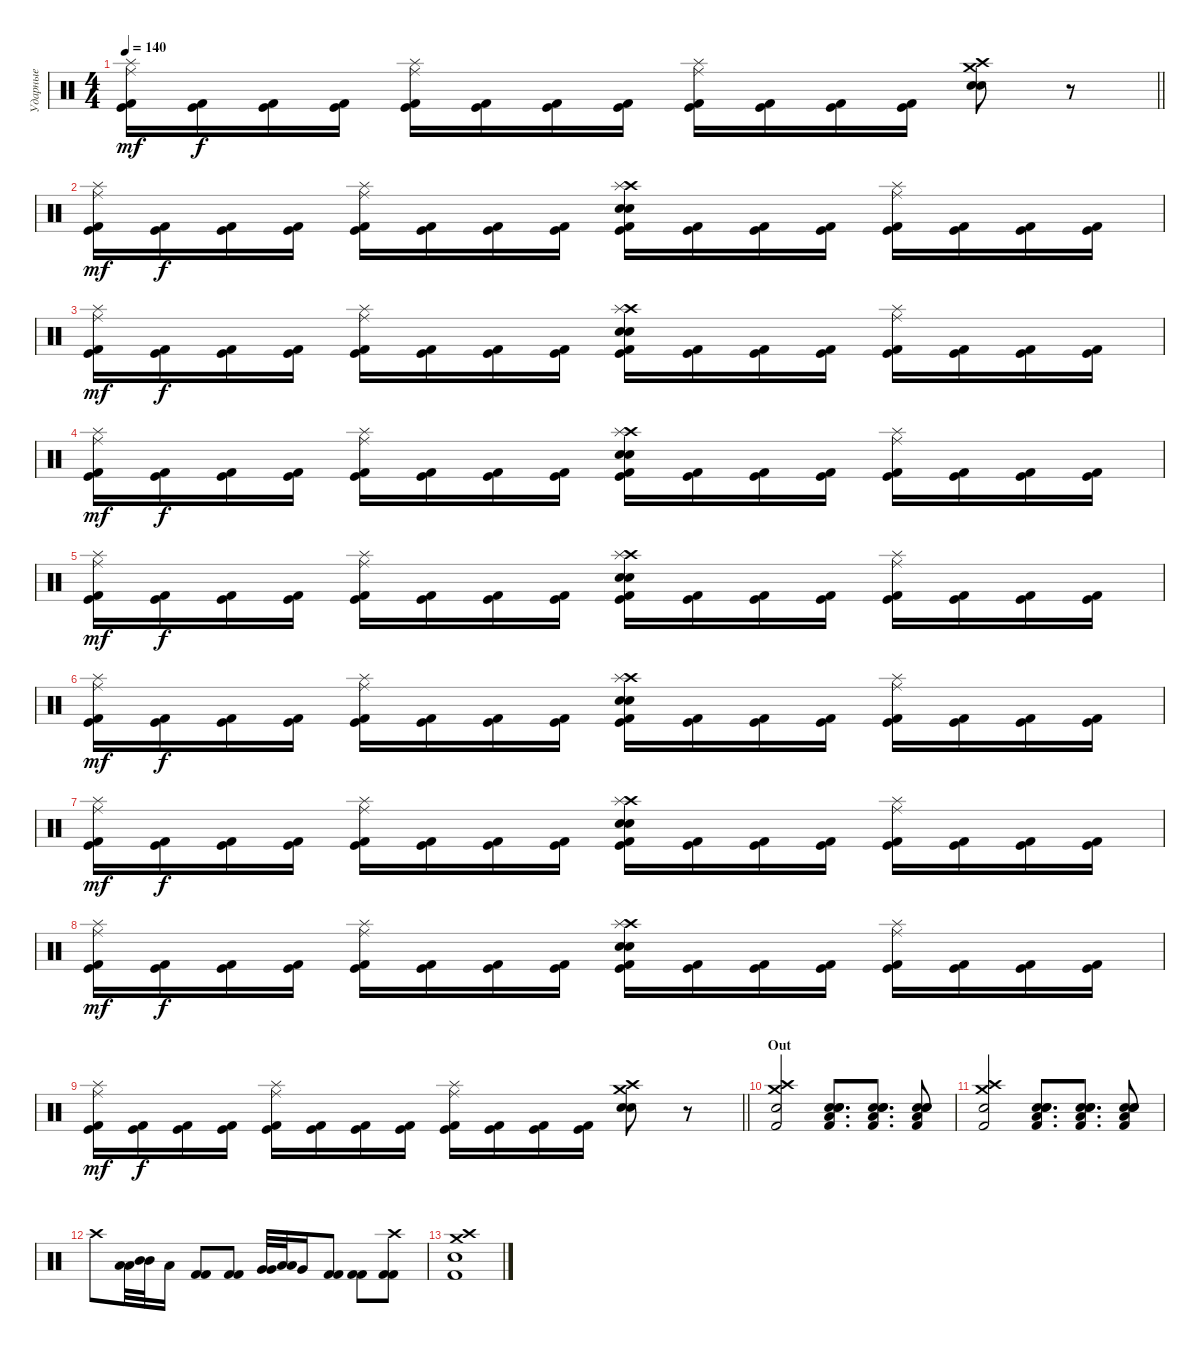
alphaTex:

\track ("Ударные" "Ударные") {instrument percussion}
\staff {score}
\articulation defaults
\ts (4 4)
\tempo 140
\clef neutral
\barLineRight lightlight
\ks c
("Ride (middle)" "Splash (hit)" "Kick (hit) 2" "Kick (hit)").16{dy mf} ("Kick (hit) 2" "Kick (hit)").16{dy f} ("Kick (hit) 2" "Kick (hit)").16 ("Kick (hit) 2" "Kick (hit)").16 ("Ride (middle)" "Splash (hit)" "Kick (hit) 2" "Kick (hit)").16 ("Kick (hit) 2" "Kick (hit)").16 ("Kick (hit) 2" "Kick (hit)").16 ("Kick (hit) 2" "Kick (hit)").16 ("Ride (middle)" "Splash (hit)" "Kick (hit) 2" "Kick (hit)").16 ("Kick (hit) 2" "Kick (hit)").16 ("Kick (hit) 2" "Kick (hit)").16 ("Kick (hit) 2" "Kick (hit)").16 ("Snare (hit) 2" "Crash high (hit)" "Crash medium (hit)" "Electric Snare (hit)").8 r.8 |
("Ride (middle)" "Splash (hit)" "Kick (hit) 2" "Kick (hit)").16{dy mf} ("Kick (hit) 2" "Kick (hit)").16{dy f} ("Kick (hit) 2" "Kick (hit)").16 ("Kick (hit) 2" "Kick (hit)").16 ("Ride (middle)" "Splash (hit)" "Kick (hit) 2" "Kick (hit)").16 ("Kick (hit) 2" "Kick (hit)").16 ("Kick (hit) 2" "Kick (hit)").16 ("Kick (hit) 2" "Kick (hit)").16 ("Electric Snare (hit)" "Crash high (hit)" "Splash (hit)" "Snare (hit) 2" "Kick (hit) 2" "Kick (hit)").16 ("Kick (hit) 2" "Kick (hit)").16 ("Kick (hit) 2" "Kick (hit)").16 ("Kick (hit) 2" "Kick (hit)").16 ("Ride (middle)" "Splash (hit)" "Kick (hit) 2" "Kick (hit)").16 ("Kick (hit) 2" "Kick (hit)").16 ("Kick (hit) 2" "Kick (hit)").16 ("Kick (hit) 2" "Kick (hit)").16 |
("Ride (middle)" "Splash (hit)" "Kick (hit) 2" "Kick (hit)").16{dy mf} ("Kick (hit) 2" "Kick (hit)").16{dy f} ("Kick (hit) 2" "Kick (hit)").16 ("Kick (hit) 2" "Kick (hit)").16 ("Ride (middle)" "Splash (hit)" "Kick (hit) 2" "Kick (hit)").16 ("Kick (hit) 2" "Kick (hit)").16 ("Kick (hit) 2" "Kick (hit)").16 ("Kick (hit) 2" "Kick (hit)").16 ("Electric Snare (hit)" "Crash high (hit)" "Splash (hit)" "Snare (hit) 2" "Kick (hit) 2" "Kick (hit)").16 ("Kick (hit) 2" "Kick (hit)").16 ("Kick (hit) 2" "Kick (hit)").16 ("Kick (hit) 2" "Kick (hit)").16 ("Ride (middle)" "Splash (hit)" "Kick (hit) 2" "Kick (hit)").16 ("Kick (hit) 2" "Kick (hit)").16 ("Kick (hit) 2" "Kick (hit)").16 ("Kick (hit) 2" "Kick (hit)").16 |
("Ride (middle)" "Splash (hit)" "Kick (hit) 2" "Kick (hit)").16{dy mf} ("Kick (hit) 2" "Kick (hit)").16{dy f} ("Kick (hit) 2" "Kick (hit)").16 ("Kick (hit) 2" "Kick (hit)").16 ("Ride (middle)" "Splash (hit)" "Kick (hit) 2" "Kick (hit)").16 ("Kick (hit) 2" "Kick (hit)").16 ("Kick (hit) 2" "Kick (hit)").16 ("Kick (hit) 2" "Kick (hit)").16 ("Electric Snare (hit)" "Crash high (hit)" "Splash (hit)" "Snare (hit) 2" "Kick (hit) 2" "Kick (hit)").16 ("Kick (hit) 2" "Kick (hit)").16 ("Kick (hit) 2" "Kick (hit)").16 ("Kick (hit) 2" "Kick (hit)").16 ("Ride (middle)" "Splash (hit)" "Kick (hit) 2" "Kick (hit)").16 ("Kick (hit) 2" "Kick (hit)").16 ("Kick (hit) 2" "Kick (hit)").16 ("Kick (hit) 2" "Kick (hit)").16 |
("Ride (middle)" "Splash (hit)" "Kick (hit) 2" "Kick (hit)").16{dy mf} ("Kick (hit) 2" "Kick (hit)").16{dy f} ("Kick (hit) 2" "Kick (hit)").16 ("Kick (hit) 2" "Kick (hit)").16 ("Ride (middle)" "Splash (hit)" "Kick (hit) 2" "Kick (hit)").16 ("Kick (hit) 2" "Kick (hit)").16 ("Kick (hit) 2" "Kick (hit)").16 ("Kick (hit) 2" "Kick (hit)").16 ("Electric Snare (hit)" "Crash high (hit)" "Splash (hit)" "Snare (hit) 2" "Kick (hit) 2" "Kick (hit)").16 ("Kick (hit) 2" "Kick (hit)").16 ("Kick (hit) 2" "Kick (hit)").16 ("Kick (hit) 2" "Kick (hit)").16 ("Ride (middle)" "Splash (hit)" "Kick (hit) 2" "Kick (hit)").16 ("Kick (hit) 2" "Kick (hit)").16 ("Kick (hit) 2" "Kick (hit)").16 ("Kick (hit) 2" "Kick (hit)").16 |
("Ride (middle)" "Splash (hit)" "Kick (hit) 2" "Kick (hit)").16{dy mf} ("Kick (hit) 2" "Kick (hit)").16{dy f} ("Kick (hit) 2" "Kick (hit)").16 ("Kick (hit) 2" "Kick (hit)").16 ("Ride (middle)" "Splash (hit)" "Kick (hit) 2" "Kick (hit)").16 ("Kick (hit) 2" "Kick (hit)").16 ("Kick (hit) 2" "Kick (hit)").16 ("Kick (hit) 2" "Kick (hit)").16 ("Electric Snare (hit)" "Crash high (hit)" "Splash (hit)" "Snare (hit) 2" "Kick (hit) 2" "Kick (hit)").16 ("Kick (hit) 2" "Kick (hit)").16 ("Kick (hit) 2" "Kick (hit)").16 ("Kick (hit) 2" "Kick (hit)").16 ("Ride (middle)" "Splash (hit)" "Kick (hit) 2" "Kick (hit)").16 ("Kick (hit) 2" "Kick (hit)").16 ("Kick (hit) 2" "Kick (hit)").16 ("Kick (hit) 2" "Kick (hit)").16 |
("Ride (middle)" "Splash (hit)" "Kick (hit) 2" "Kick (hit)").16{dy mf} ("Kick (hit) 2" "Kick (hit)").16{dy f} ("Kick (hit) 2" "Kick (hit)").16 ("Kick (hit) 2" "Kick (hit)").16 ("Ride (middle)" "Splash (hit)" "Kick (hit) 2" "Kick (hit)").16 ("Kick (hit) 2" "Kick (hit)").16 ("Kick (hit) 2" "Kick (hit)").16 ("Kick (hit) 2" "Kick (hit)").16 ("Electric Snare (hit)" "Crash high (hit)" "Splash (hit)" "Snare (hit) 2" "Kick (hit) 2" "Kick (hit)").16 ("Kick (hit) 2" "Kick (hit)").16 ("Kick (hit) 2" "Kick (hit)").16 ("Kick (hit) 2" "Kick (hit)").16 ("Ride (middle)" "Splash (hit)" "Kick (hit) 2" "Kick (hit)").16 ("Kick (hit) 2" "Kick (hit)").16 ("Kick (hit) 2" "Kick (hit)").16 ("Kick (hit) 2" "Kick (hit)").16 |
("Ride (middle)" "Splash (hit)" "Kick (hit) 2" "Kick (hit)").16{dy mf} ("Kick (hit) 2" "Kick (hit)").16{dy f} ("Kick (hit) 2" "Kick (hit)").16 ("Kick (hit) 2" "Kick (hit)").16 ("Ride (middle)" "Splash (hit)" "Kick (hit) 2" "Kick (hit)").16 ("Kick (hit) 2" "Kick (hit)").16 ("Kick (hit) 2" "Kick (hit)").16 ("Kick (hit) 2" "Kick (hit)").16 ("Electric Snare (hit)" "Crash high (hit)" "Splash (hit)" "Snare (hit) 2" "Kick (hit) 2" "Kick (hit)").16 ("Kick (hit) 2" "Kick (hit)").16 ("Kick (hit) 2" "Kick (hit)").16 ("Kick (hit) 2" "Kick (hit)").16 ("Ride (middle)" "Splash (hit)" "Kick (hit) 2" "Kick (hit)").16 ("Kick (hit) 2" "Kick (hit)").16 ("Kick (hit) 2" "Kick (hit)").16 ("Kick (hit) 2" "Kick (hit)").16 |
\barLineRight lightlight
("Ride (middle)" "Splash (hit)" "Kick (hit) 2" "Kick (hit)").16{dy mf} ("Kick (hit) 2" "Kick (hit)").16{dy f} ("Kick (hit) 2" "Kick (hit)").16 ("Kick (hit) 2" "Kick (hit)").16 ("Ride (middle)" "Splash (hit)" "Kick (hit) 2" "Kick (hit)").16 ("Kick (hit) 2" "Kick (hit)").16 ("Kick (hit) 2" "Kick (hit)").16 ("Kick (hit) 2" "Kick (hit)").16 ("Ride (middle)" "Splash (hit)" "Kick (hit) 2" "Kick (hit)").16 ("Kick (hit) 2" "Kick (hit)").16 ("Kick (hit) 2" "Kick (hit)").16 ("Kick (hit) 2" "Kick (hit)").16 ("Snare (hit) 2" "Crash high (hit)" "Crash medium (hit)" "Electric Snare (hit)").8 r.8 |
\section ("" "Out")
("Crash high (hit)" "Crash medium (hit)" "Electric Snare (hit)" "Kick (hit) 2").2 ("Snare (hit) 2" "Kick (hit) 2" "Low Floor Tom (hit)" "Electric Snare (hit)" "Electric Snare (hit)").8{d} ("Snare (hit) 2" "Kick (hit) 2" "Low Floor Tom (hit)" "Electric Snare (hit)" "Electric Snare (hit)").8{d} ("Snare (hit) 2" "Kick (hit) 2" "Low Floor Tom (hit)" "Electric Snare (hit)" "Electric Snare (hit)").8 |
("Crash high (hit)" "Crash medium (hit)" "Electric Snare (hit)" "Kick (hit) 2").2 ("Snare (hit) 2" "Kick (hit) 2" "Low Floor Tom (hit)" "Electric Snare (hit)" "Electric Snare (hit)").8{d} ("Snare (hit) 2" "Kick (hit) 2" "Low Floor Tom (hit)" "Electric Snare (hit)" "Electric Snare (hit)").8{d} ("Snare (hit) 2" "Kick (hit) 2" "Low Floor Tom (hit)" "Electric Snare (hit)" "Electric Snare (hit)").8 |
"Crash high (hit)".8 ("Low Tom (hit)" "Low Tom (hit)").32 ("Mid Tom (hit)" "Mid Tom (hit)").32 "Low Tom (hit)".16 ("Kick (hit) 2" "Kick (hit) 2").8 ("Kick (hit) 2" "Kick (hit) 2").8 ("Very Low Tom (hit)" "Very Low Tom (hit)").32 ("Low Tom (hit)" "Low Tom (hit)").32 "Very Low Tom (hit)".16 ("Kick (hit) 2" "Kick (hit) 2").8 ("Kick (hit) 2" "Kick (hit) 2").8 ("Crash high (hit)" "Kick (hit) 2" "Kick (hit) 2").8 |
("Crash high (hit)" "Crash medium (hit)" "Electric Snare (hit)" "Kick (hit) 2").1
